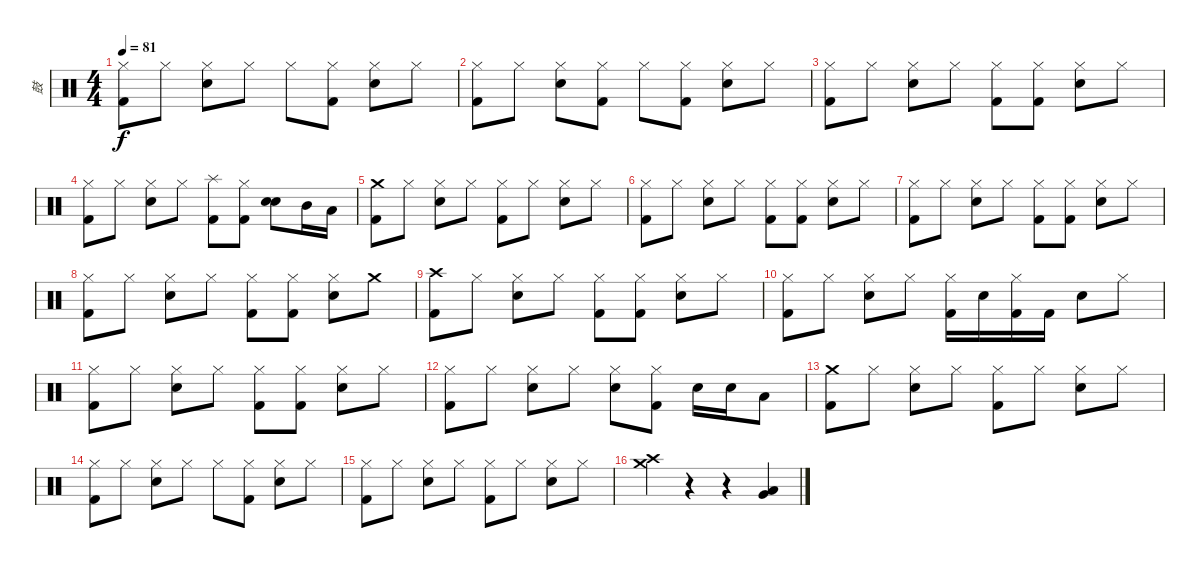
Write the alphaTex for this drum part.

\track ("鼓" "鼓") {instrument percussion}
\staff {score}
\articulation defaults
\ts (4 4)
\tempo 81
\clef neutral
\ks c
("Hi-Hat (closed)" "Kick (hit) 2").8{dy f} "Hi-Hat (closed)".8 ("Hi-Hat (closed)" "Snare (hit) 2").8 "Hi-Hat (closed)".8 "Hi-Hat (closed)".8 ("Hi-Hat (closed)" "Kick (hit) 2").8 ("Hi-Hat (closed)" "Snare (hit) 2").8 "Hi-Hat (closed)".8 |
("Hi-Hat (closed)" "Kick (hit) 2").8 "Hi-Hat (closed)".8 ("Hi-Hat (closed)" "Snare (hit) 2").8 ("Hi-Hat (closed)" "Kick (hit) 2").8 "Hi-Hat (closed)".8 ("Hi-Hat (closed)" "Kick (hit) 2").8 ("Hi-Hat (closed)" "Snare (hit) 2").8 "Hi-Hat (closed)".8 |
("Hi-Hat (closed)" "Kick (hit) 2").8 "Hi-Hat (closed)".8 ("Hi-Hat (closed)" "Snare (hit) 2").8 "Hi-Hat (closed)".8 ("Hi-Hat (closed)" "Kick (hit) 2").8 ("Hi-Hat (closed)" "Kick (hit) 2").8 ("Hi-Hat (closed)" "Snare (hit) 2").8 "Hi-Hat (closed)".8 |
("Hi-Hat (closed)" "Kick (hit) 2").8 "Hi-Hat (closed)".8 ("Hi-Hat (closed)" "Snare (hit) 2").8 "Hi-Hat (closed)".8 ("Splash (hit)" "Kick (hit) 2").8 ("Hi-Hat (closed)" "Kick (hit) 2").8 ("Snare (hit) 2" "Snare (hit) 2").8 "Mid Tom (hit)".16 "Low Tom (hit)".16 |
("Crash medium (hit)" "Kick (hit) 2").8 "Hi-Hat (closed)".8 ("Hi-Hat (closed)" "Snare (hit) 2").8 "Hi-Hat (closed)".8 ("Hi-Hat (closed)" "Kick (hit) 2").8 "Hi-Hat (closed)".8 ("Hi-Hat (closed)" "Snare (hit) 2").8 "Hi-Hat (closed)".8 |
("Hi-Hat (closed)" "Kick (hit) 2").8 "Hi-Hat (closed)".8 ("Hi-Hat (closed)" "Snare (hit) 2").8 "Hi-Hat (closed)".8 ("Hi-Hat (closed)" "Kick (hit) 2").8 ("Hi-Hat (closed)" "Kick (hit) 2").8 ("Hi-Hat (closed)" "Snare (hit) 2").8 "Hi-Hat (closed)".8 |
("Hi-Hat (closed)" "Kick (hit) 2").8 "Hi-Hat (closed)".8 ("Hi-Hat (closed)" "Snare (hit) 2").8 "Hi-Hat (closed)".8 ("Hi-Hat (closed)" "Kick (hit) 2").8 ("Hi-Hat (closed)" "Kick (hit) 2").8 ("Hi-Hat (closed)" "Snare (hit) 2").8 "Hi-Hat (closed)".8 |
("Hi-Hat (closed)" "Kick (hit) 2").8 "Hi-Hat (closed)".8 ("Hi-Hat (closed)" "Snare (hit) 2").8 "Hi-Hat (closed)".8 ("Hi-Hat (closed)" "Kick (hit) 2").8 ("Hi-Hat (closed)" "Kick (hit) 2").8 ("Hi-Hat (closed)" "Snare (hit) 2").8 "Crash medium (hit)".8 |
("Crash high (hit)" "Kick (hit) 2").8 "Hi-Hat (closed)".8 ("Hi-Hat (closed)" "Snare (hit) 2").8 "Hi-Hat (closed)".8 ("Hi-Hat (closed)" "Kick (hit) 2").8 ("Hi-Hat (closed)" "Kick (hit) 2").8 ("Hi-Hat (closed)" "Snare (hit) 2").8 "Hi-Hat (closed)".8 |
("Hi-Hat (closed)" "Kick (hit) 2").8 "Hi-Hat (closed)".8 ("Hi-Hat (closed)" "Snare (hit) 2").8 "Hi-Hat (closed)".8 ("Hi-Hat (closed)" "Kick (hit) 2").16 "Snare (hit) 2".16 ("Hi-Hat (closed)" "Kick (hit) 2").16 "Kick (hit) 2".16 "Snare (hit) 2".8 "Hi-Hat (closed)".8 |
("Hi-Hat (closed)" "Kick (hit) 2").8 "Hi-Hat (closed)".8 ("Hi-Hat (closed)" "Snare (hit) 2").8 "Hi-Hat (closed)".8 ("Hi-Hat (closed)" "Kick (hit) 2").8 ("Hi-Hat (closed)" "Kick (hit) 2").8 ("Hi-Hat (closed)" "Snare (hit) 2").8 "Hi-Hat (closed)".8 |
("Hi-Hat (closed)" "Kick (hit) 2").8 "Hi-Hat (closed)".8 ("Hi-Hat (closed)" "Snare (hit) 2").8 "Hi-Hat (closed)".8 ("Hi-Hat (closed)" "Snare (hit) 2").8 ("Hi-Hat (closed)" "Kick (hit) 2").8 "Snare (hit) 2".16 "Snare (hit) 2".16 "Low Tom (hit)".8 |
("Crash medium (hit)" "Kick (hit) 2").8 "Hi-Hat (closed)".8 ("Hi-Hat (closed)" "Snare (hit) 2").8 "Hi-Hat (closed)".8 ("Hi-Hat (closed)" "Kick (hit) 2").8 "Hi-Hat (closed)".8 ("Hi-Hat (closed)" "Snare (hit) 2").8 "Hi-Hat (closed)".8 |
("Hi-Hat (closed)" "Kick (hit) 2").8 "Hi-Hat (closed)".8 ("Hi-Hat (closed)" "Snare (hit) 2").8 "Hi-Hat (closed)".8 "Hi-Hat (closed)".8 ("Hi-Hat (closed)" "Kick (hit) 2").8 ("Hi-Hat (closed)" "Snare (hit) 2").8 "Hi-Hat (closed)".8 |
("Hi-Hat (closed)" "Kick (hit) 2").8 "Hi-Hat (closed)".8 ("Hi-Hat (closed)" "Snare (hit) 2").8 "Hi-Hat (closed)".8 ("Hi-Hat (closed)" "Kick (hit) 2").8 "Hi-Hat (closed)".8 ("Hi-Hat (closed)" "Snare (hit) 2").8 "Hi-Hat (closed)".8 |
("Crash medium (hit)" "Crash high (hit)").4 r.4 r.4 ("Very Low Tom (hit)" "Low Floor Tom (hit)").4
